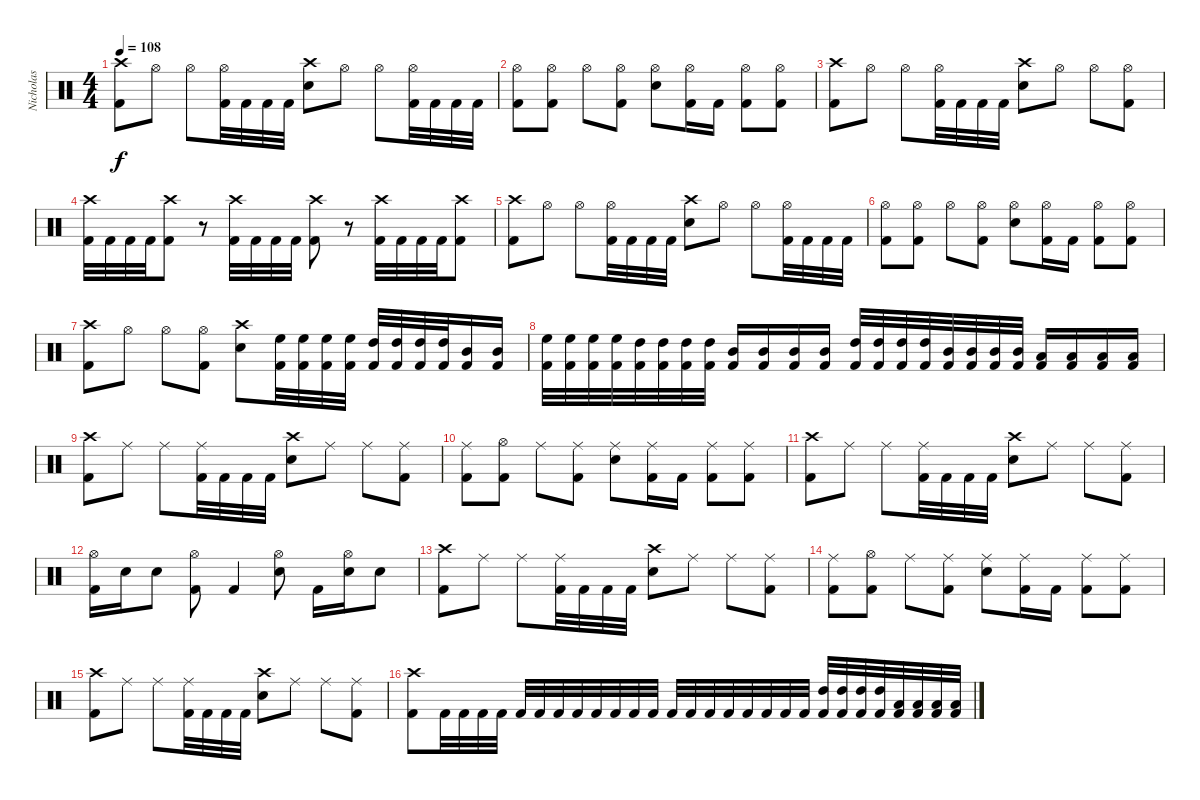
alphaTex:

\track ("Nicholas" "Nicholas") {instrument percussion}
\staff {score}
\articulation defaults
\ts (4 4)
\tempo 108
\clef neutral
\ks c
("Kick (hit) 2" "Crash high (hit)").8{dy f} "Hi-Hat (open)".8 "Hi-Hat (open)".8 ("Kick (hit) 2" "Hi-Hat (open)").32 "Kick (hit) 2".32 "Kick (hit) 2".32 "Kick (hit) 2".32 ("Snare (hit) 2" "Crash high (hit)").8 "Hi-Hat (open)".8 "Hi-Hat (open)".8 ("Kick (hit) 2" "Hi-Hat (open)").32 "Kick (hit) 2".32 "Kick (hit) 2".32 "Kick (hit) 2".32 |
("Kick (hit) 2" "Hi-Hat (open)").8 ("Kick (hit) 2" "Hi-Hat (open)").8 "Hi-Hat (open)".8 ("Kick (hit) 2" "Hi-Hat (open)").8 ("Snare (hit) 2" "Hi-Hat (open)").8 ("Kick (hit) 2" "Hi-Hat (open)").16 "Kick (hit) 2".16 ("Kick (hit) 2" "Hi-Hat (open)").8 ("Kick (hit) 2" "Hi-Hat (open)").8 |
("Kick (hit) 2" "Crash high (hit)").8 "Hi-Hat (open)".8 "Hi-Hat (open)".8 ("Kick (hit) 2" "Hi-Hat (open)").32 "Kick (hit) 2".32 "Kick (hit) 2".32 "Kick (hit) 2".32 ("Snare (hit) 2" "Crash high (hit)").8 "Hi-Hat (open)".8 "Hi-Hat (open)".8 ("Kick (hit) 2" "Hi-Hat (open)").8 |
("Kick (hit) 2" "Crash high (hit)").32 "Kick (hit) 2".32 "Kick (hit) 2".32 "Kick (hit) 2".32 ("Kick (hit) 2" "Crash high (hit)").8 r.8 ("Kick (hit) 2" "Crash high (hit)").32 "Kick (hit) 2".32 "Kick (hit) 2".32 "Kick (hit) 2".32 ("Kick (hit) 2" "Crash high (hit)").8 r.8 ("Kick (hit) 2" "Crash high (hit)").32 "Kick (hit) 2".32 "Kick (hit) 2".32 "Kick (hit) 2".32 ("Kick (hit) 2" "Crash high (hit)").8 |
("Kick (hit) 2" "Crash high (hit)").8 "Hi-Hat (open)".8 "Hi-Hat (open)".8 ("Kick (hit) 2" "Hi-Hat (open)").32 "Kick (hit) 2".32 "Kick (hit) 2".32 "Kick (hit) 2".32 ("Snare (hit) 2" "Crash high (hit)").8 "Hi-Hat (open)".8 "Hi-Hat (open)".8 ("Kick (hit) 2" "Hi-Hat (open)").32 "Kick (hit) 2".32 "Kick (hit) 2".32 "Kick (hit) 2".32 |
("Kick (hit) 2" "Hi-Hat (open)").8 ("Kick (hit) 2" "Hi-Hat (open)").8 "Hi-Hat (open)".8 ("Kick (hit) 2" "Hi-Hat (open)").8 ("Snare (hit) 2" "Hi-Hat (open)").8 ("Kick (hit) 2" "Hi-Hat (open)").16 "Kick (hit) 2".16 ("Kick (hit) 2" "Hi-Hat (open)").8 ("Kick (hit) 2" "Hi-Hat (open)").8 |
("Kick (hit) 2" "Crash high (hit)").8 "Hi-Hat (open)".8 "Hi-Hat (open)".8 ("Kick (hit) 2" "Hi-Hat (open)").8 ("Snare (hit) 2" "Crash high (hit)").8 ("Kick (hit) 2" "High Floor Tom (hit)").32 ("Kick (hit) 2" "High Floor Tom (hit)").32 ("Kick (hit) 2" "High Floor Tom (hit)").32 ("Kick (hit) 2" "High Floor Tom (hit)").32 ("Kick (hit) 2" "High Tom (hit)").32 ("Kick (hit) 2" "High Tom (hit)").32 ("Kick (hit) 2" "High Tom (hit)").32 ("Kick (hit) 2" "High Tom (hit)").32 ("Kick (hit) 2" "Mid Tom (hit)").16 ("Kick (hit) 2" "Mid Tom (hit)").16 |
("Kick (hit) 2" "High Floor Tom (hit)").32 ("Kick (hit) 2" "High Floor Tom (hit)").32 ("Kick (hit) 2" "High Floor Tom (hit)").32 ("Kick (hit) 2" "High Floor Tom (hit)").32 ("Kick (hit) 2" "High Tom (hit)").32 ("Kick (hit) 2" "High Tom (hit)").32 ("Kick (hit) 2" "High Tom (hit)").32 ("Kick (hit) 2" "High Tom (hit)").32 ("Kick (hit) 2" "Mid Tom (hit)").16 ("Kick (hit) 2" "Mid Tom (hit)").16 ("Kick (hit) 2" "Mid Tom (hit)").16 ("Kick (hit) 2" "Mid Tom (hit)").16 ("Kick (hit) 2" "High Tom (hit)").32 ("Kick (hit) 2" "High Tom (hit)").32 ("Kick (hit) 2" "High Tom (hit)").32 ("Kick (hit) 2" "High Tom (hit)").32 ("Kick (hit) 2" "Mid Tom (hit)").32 ("Kick (hit) 2" "Mid Tom (hit)").32 ("Kick (hit) 2" "Mid Tom (hit)").32 ("Kick (hit) 2" "Mid Tom (hit)").32 ("Kick (hit) 2" "Low Tom (hit)").16 ("Kick (hit) 2" "Low Tom (hit)").16 ("Kick (hit) 2" "Low Tom (hit)").16 ("Kick (hit) 2" "Low Tom (hit)").16 |
("Kick (hit) 2" "Crash high (hit)").8 "Ride (middle)".8 "Ride (middle)".8 ("Kick (hit) 2" "Ride (middle)").32 "Kick (hit) 2".32 "Kick (hit) 2".32 "Kick (hit) 2".32 ("Snare (hit) 2" "Crash high (hit)").8 "Ride (middle)".8 "Ride (middle)".8 ("Kick (hit) 2" "Ride (middle)").8 |
("Kick (hit) 2" "Ride (middle)").8 ("Kick (hit) 2" "Hi-Hat (open)").8 "Ride (middle)".8 ("Kick (hit) 2" "Ride (middle)").8 ("Snare (hit) 2" "Ride (middle)").8 ("Kick (hit) 2" "Ride (middle)").16 "Kick (hit) 2".16 ("Kick (hit) 2" "Ride (middle)").8 ("Kick (hit) 2" "Ride (middle)").8 |
("Kick (hit) 2" "Crash high (hit)").8 "Ride (middle)".8 "Ride (middle)".8 ("Kick (hit) 2" "Ride (middle)").32 "Kick (hit) 2".32 "Kick (hit) 2".32 "Kick (hit) 2".32 ("Snare (hit) 2" "Crash high (hit)").8 "Ride (middle)".8 "Ride (middle)".8 ("Kick (hit) 2" "Ride (middle)").8 |
("Kick (hit) 2" "Hi-Hat (open)").16 "Snare (hit) 2".16 "Snare (hit) 2".8 ("Kick (hit) 2" "Hi-Hat (open)").8 "Kick (hit) 2".4 ("Snare (hit) 2" "Hi-Hat (open)").8 "Kick (hit) 2".16 ("Snare (hit) 2" "Hi-Hat (open)").16 "Snare (hit) 2".8 |
("Kick (hit) 2" "Crash high (hit)").8 "Ride (middle)".8 "Ride (middle)".8 ("Kick (hit) 2" "Ride (middle)").32 "Kick (hit) 2".32 "Kick (hit) 2".32 "Kick (hit) 2".32 ("Snare (hit) 2" "Crash high (hit)").8 "Ride (middle)".8 "Ride (middle)".8 ("Kick (hit) 2" "Ride (middle)").8 |
("Kick (hit) 2" "Ride (middle)").8 ("Kick (hit) 2" "Hi-Hat (open)").8 "Ride (middle)".8 ("Kick (hit) 2" "Ride (middle)").8 ("Snare (hit) 2" "Ride (middle)").8 ("Kick (hit) 2" "Ride (middle)").16 "Kick (hit) 2".16 ("Kick (hit) 2" "Ride (middle)").8 ("Kick (hit) 2" "Ride (middle)").8 |
("Kick (hit) 2" "Crash high (hit)").8 "Ride (middle)".8 "Ride (middle)".8 ("Kick (hit) 2" "Ride (middle)").32 "Kick (hit) 2".32 "Kick (hit) 2".32 "Kick (hit) 2".32 ("Snare (hit) 2" "Crash high (hit)").8 "Ride (middle)".8 "Ride (middle)".8 ("Kick (hit) 2" "Ride (middle)").8 |
("Kick (hit) 2" "Crash high (hit)").8 "Kick (hit) 2".32 "Kick (hit) 2".32 "Kick (hit) 2".32 "Kick (hit) 2".32 "Kick (hit) 2".32 "Kick (hit) 2".32 "Kick (hit) 2".32 "Kick (hit) 2".32 "Kick (hit) 2".32 "Kick (hit) 2".32 "Kick (hit) 2".32 "Kick (hit) 2".32 "Kick (hit) 2".32 "Kick (hit) 2".32 "Kick (hit) 2".32 "Kick (hit) 2".32 "Kick (hit) 2".32 "Kick (hit) 2".32 "Kick (hit) 2".32 "Kick (hit) 2".32 ("Kick (hit) 2" "High Tom (hit)").32 ("Kick (hit) 2" "High Tom (hit)").32 ("Kick (hit) 2" "High Tom (hit)").32 ("Kick (hit) 2" "High Tom (hit)").32 ("Kick (hit) 2" "Low Tom (hit)").32 ("Kick (hit) 2" "Low Tom (hit)").32 ("Kick (hit) 2" "Low Tom (hit)").32 ("Kick (hit) 2" "Low Tom (hit)").32
